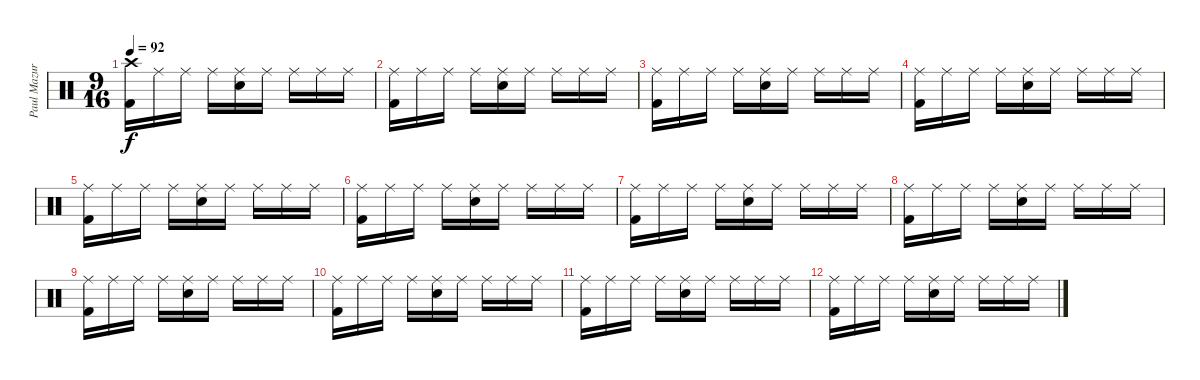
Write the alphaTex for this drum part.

\track ("Paul Mazurkiewicz" "Paul Mazur") {instrument percussion}
\staff {score}
\articulation defaults
\ts (9 16)
\tempo 92
\clef neutral
\ks c
("Crash high (hit)" "Kick (hit) 2").16{dy f} "Ride (middle)".16 "Ride (middle)".16 "Ride (middle)".16 ("Ride (middle)" "Snare (hit) 2").16 "Ride (middle)".16 "Ride (middle)".16 "Ride (middle)".16 "Ride (middle)".16 |
("Ride (middle)" "Kick (hit) 2").16 "Ride (middle)".16 "Ride (middle)".16 "Ride (middle)".16 ("Ride (middle)" "Snare (hit) 2").16 "Ride (middle)".16 "Ride (middle)".16 "Ride (middle)".16 "Ride (middle)".16 |
("Ride (middle)" "Kick (hit) 2").16 "Ride (middle)".16 "Ride (middle)".16 "Ride (middle)".16 ("Ride (middle)" "Snare (hit) 2").16 "Ride (middle)".16 "Ride (middle)".16 "Ride (middle)".16 "Ride (middle)".16 |
("Ride (middle)" "Kick (hit) 2").16 "Ride (middle)".16 "Ride (middle)".16 "Ride (middle)".16 ("Ride (middle)" "Snare (hit) 2").16 "Ride (middle)".16 "Ride (middle)".16 "Ride (middle)".16 "Ride (middle)".16 |
("Ride (middle)" "Kick (hit) 2").16 "Ride (middle)".16 "Ride (middle)".16 "Ride (middle)".16 ("Ride (middle)" "Snare (hit) 2").16 "Ride (middle)".16 "Ride (middle)".16 "Ride (middle)".16 "Ride (middle)".16 |
("Ride (middle)" "Kick (hit) 2").16 "Ride (middle)".16 "Ride (middle)".16 "Ride (middle)".16 ("Ride (middle)" "Snare (hit) 2").16 "Ride (middle)".16 "Ride (middle)".16 "Ride (middle)".16 "Ride (middle)".16 |
("Ride (middle)" "Kick (hit) 2").16 "Ride (middle)".16 "Ride (middle)".16 "Ride (middle)".16 ("Ride (middle)" "Snare (hit) 2").16 "Ride (middle)".16 "Ride (middle)".16 "Ride (middle)".16 "Ride (middle)".16 |
("Ride (middle)" "Kick (hit) 2").16 "Ride (middle)".16 "Ride (middle)".16 "Ride (middle)".16 ("Ride (middle)" "Snare (hit) 2").16 "Ride (middle)".16 "Ride (middle)".16 "Ride (middle)".16 "Ride (middle)".16 |
("Ride (middle)" "Kick (hit) 2").16 "Ride (middle)".16 "Ride (middle)".16 "Ride (middle)".16 ("Ride (middle)" "Snare (hit) 2").16 "Ride (middle)".16 "Ride (middle)".16 "Ride (middle)".16 "Ride (middle)".16 |
("Ride (middle)" "Kick (hit) 2").16 "Ride (middle)".16 "Ride (middle)".16 "Ride (middle)".16 ("Ride (middle)" "Snare (hit) 2").16 "Ride (middle)".16 "Ride (middle)".16 "Ride (middle)".16 "Ride (middle)".16 |
("Ride (middle)" "Kick (hit) 2").16 "Ride (middle)".16 "Ride (middle)".16 "Ride (middle)".16 ("Ride (middle)" "Snare (hit) 2").16 "Ride (middle)".16 "Ride (middle)".16 "Ride (middle)".16 "Ride (middle)".16 |
("Ride (middle)" "Kick (hit) 2").16 "Ride (middle)".16 "Ride (middle)".16 "Ride (middle)".16 ("Ride (middle)" "Snare (hit) 2").16 "Ride (middle)".16 "Ride (middle)".16 "Ride (middle)".16 "Ride (middle)".16
